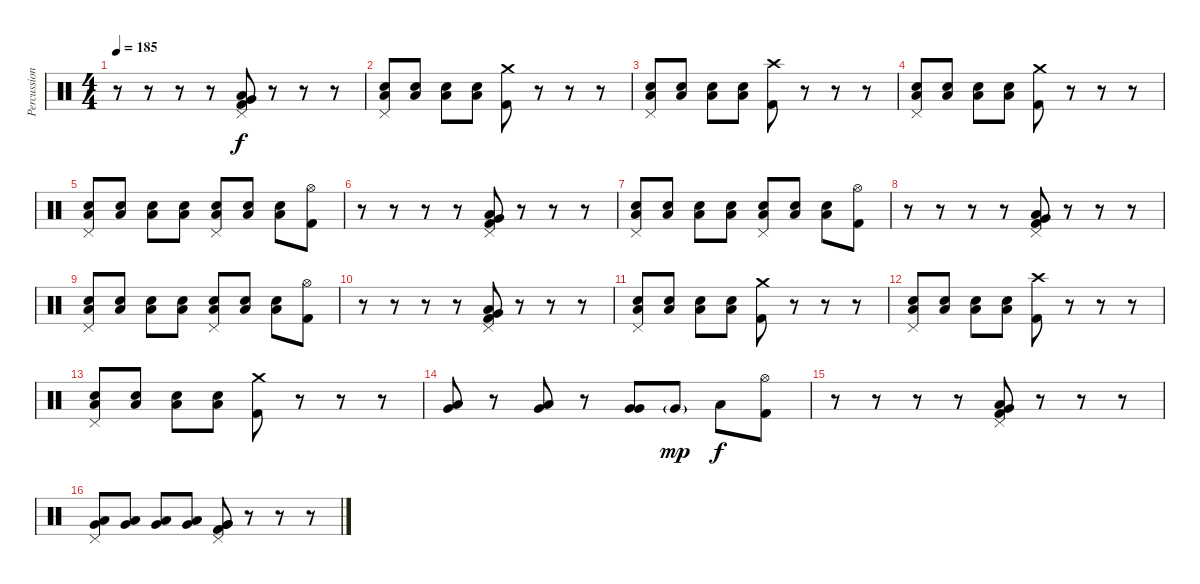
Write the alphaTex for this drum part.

\track ("Percussion" "Percussion") {instrument percussion}
\staff {score}
\articulation defaults
\ts (4 4)
\tempo 185
\clef neutral
\ks c
r.8{dy f} r.8 r.8 r.8 ("Pedal Hi-Hat (hit)" "Very Low Tom (hit)" "Low Floor Tom (hit)" "Kick (hit) 2").8 r.8 r.8 r.8 |
("Pedal Hi-Hat (hit)" "Low Floor Tom (hit)" "Electric Snare (hit)").8 ("Low Floor Tom (hit)" "Electric Snare (hit)").8 ("Low Floor Tom (hit)" "Electric Snare (hit)").8 ("Low Floor Tom (hit)" "Electric Snare (hit)").8 ("Crash medium (hit)" "Kick (hit) 2").8 r.8 r.8 r.8 |
("Pedal Hi-Hat (hit)" "Low Floor Tom (hit)" "Electric Snare (hit)").8 ("Low Floor Tom (hit)" "Electric Snare (hit)").8 ("Low Floor Tom (hit)" "Electric Snare (hit)").8 ("Low Floor Tom (hit)" "Electric Snare (hit)").8 ("Crash high (hit)" "Kick (hit) 2").8 r.8 r.8 r.8 |
("Pedal Hi-Hat (hit)" "Low Floor Tom (hit)" "Electric Snare (hit)").8 ("Low Floor Tom (hit)" "Electric Snare (hit)").8 ("Low Floor Tom (hit)" "Electric Snare (hit)").8 ("Low Floor Tom (hit)" "Electric Snare (hit)").8 ("Crash medium (hit)" "Kick (hit) 2").8 r.8 r.8 r.8 |
("Pedal Hi-Hat (hit)" "Low Floor Tom (hit)" "Electric Snare (hit)").8 ("Low Floor Tom (hit)" "Electric Snare (hit)").8 ("Low Floor Tom (hit)" "Electric Snare (hit)").8 ("Low Floor Tom (hit)" "Electric Snare (hit)").8 ("Pedal Hi-Hat (hit)" "Low Floor Tom (hit)" "Electric Snare (hit)").8 ("Low Floor Tom (hit)" "Electric Snare (hit)").8 ("Low Floor Tom (hit)" "Electric Snare (hit)").8 ("Hi-Hat (open)" "Kick (hit) 2").8 |
r.8 r.8 r.8 r.8 ("Pedal Hi-Hat (hit)" "Very Low Tom (hit)" "Low Floor Tom (hit)" "Kick (hit) 2").8 r.8 r.8 r.8 |
("Pedal Hi-Hat (hit)" "Low Floor Tom (hit)" "Electric Snare (hit)").8 ("Low Floor Tom (hit)" "Electric Snare (hit)").8 ("Low Floor Tom (hit)" "Electric Snare (hit)").8 ("Low Floor Tom (hit)" "Electric Snare (hit)").8 ("Pedal Hi-Hat (hit)" "Low Floor Tom (hit)" "Electric Snare (hit)").8 ("Low Floor Tom (hit)" "Electric Snare (hit)").8 ("Low Floor Tom (hit)" "Electric Snare (hit)").8 ("Hi-Hat (open)" "Kick (hit) 2").8 |
r.8 r.8 r.8 r.8 ("Pedal Hi-Hat (hit)" "Very Low Tom (hit)" "Low Floor Tom (hit)" "Kick (hit) 2").8 r.8 r.8 r.8 |
("Pedal Hi-Hat (hit)" "Low Floor Tom (hit)" "Electric Snare (hit)").8 ("Low Floor Tom (hit)" "Electric Snare (hit)").8 ("Low Floor Tom (hit)" "Electric Snare (hit)").8 ("Low Floor Tom (hit)" "Electric Snare (hit)").8 ("Pedal Hi-Hat (hit)" "Low Floor Tom (hit)" "Electric Snare (hit)").8 ("Low Floor Tom (hit)" "Electric Snare (hit)").8 ("Low Floor Tom (hit)" "Electric Snare (hit)").8 ("Hi-Hat (open)" "Kick (hit) 2").8 |
r.8 r.8 r.8 r.8 ("Pedal Hi-Hat (hit)" "Very Low Tom (hit)" "Low Floor Tom (hit)" "Kick (hit) 2").8 r.8 r.8 r.8 |
("Pedal Hi-Hat (hit)" "Low Floor Tom (hit)" "Electric Snare (hit)").8 ("Low Floor Tom (hit)" "Electric Snare (hit)").8 ("Low Floor Tom (hit)" "Electric Snare (hit)").8 ("Low Floor Tom (hit)" "Electric Snare (hit)").8 ("Crash medium (hit)" "Kick (hit) 2").8 r.8 r.8 r.8 |
("Pedal Hi-Hat (hit)" "Low Floor Tom (hit)" "Electric Snare (hit)").8 ("Low Floor Tom (hit)" "Electric Snare (hit)").8 ("Low Floor Tom (hit)" "Electric Snare (hit)").8 ("Low Floor Tom (hit)" "Electric Snare (hit)").8 ("Crash high (hit)" "Kick (hit) 2").8 r.8 r.8 r.8 |
("Pedal Hi-Hat (hit)" "Low Floor Tom (hit)" "Electric Snare (hit)").8 ("Low Floor Tom (hit)" "Electric Snare (hit)").8 ("Low Floor Tom (hit)" "Electric Snare (hit)").8 ("Low Floor Tom (hit)" "Electric Snare (hit)").8 ("Crash medium (hit)" "Kick (hit) 2").8 r.8 r.8 r.8 |
("Very Low Tom (hit)" "Low Tom (hit)").8 r.8 ("Low Floor Tom (hit)" "Very Low Tom (hit)").8 r.8 ("Very Low Tom (hit)" "Very Low Tom (hit)").8 "Very Low Tom (hit)"{g}.8{dy mp} "Low Floor Tom (hit)".8{dy f} ("Hi-Hat (open)" "Kick (hit) 2").8 |
r.8 r.8 r.8 r.8 ("Pedal Hi-Hat (hit)" "Low Floor Tom (hit)" "Very Low Tom (hit)" "Kick (hit) 2").8 r.8 r.8 r.8 |
("Pedal Hi-Hat (hit)" "Low Floor Tom (hit)" "Very Low Tom (hit)").8 ("Low Floor Tom (hit)" "Very Low Tom (hit)").8 ("Low Floor Tom (hit)" "Very Low Tom (hit)").8 ("Low Floor Tom (hit)" "Very Low Tom (hit)").8 ("Pedal Hi-Hat (hit)" "Very Low Tom (hit)" "Very Low Tom (hit)" "Kick (hit) 2").8 r.8 r.8 r.8
